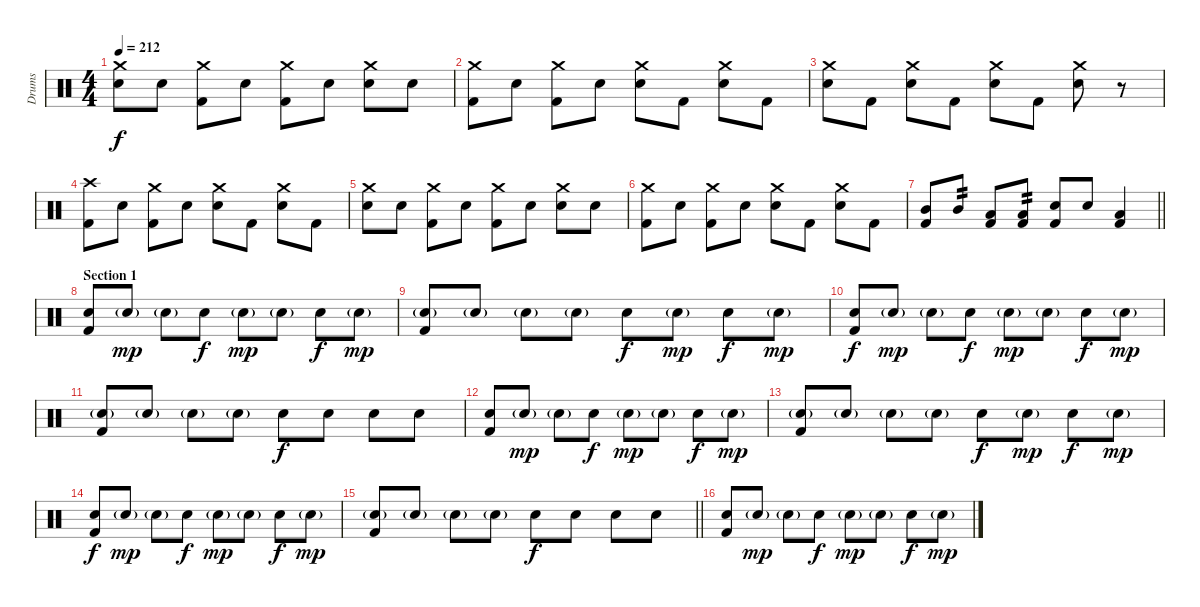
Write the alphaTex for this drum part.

\track ("Drums" "Drums") {instrument percussion}
\staff {score}
\articulation defaults
\ts (4 4)
\tempo 212
\clef neutral
\ks c
("Crash medium (hit)" "Snare (hit) 2").8{dy f} "Snare (hit) 2".8 ("Crash medium (hit)" "Kick (hit) 2").8 "Snare (hit) 2".8 ("Crash medium (hit)" "Kick (hit) 2").8 "Snare (hit) 2".8 ("Crash medium (hit)" "Snare (hit) 2").8 "Snare (hit) 2".8 |
("Crash medium (hit)" "Kick (hit) 2").8 "Snare (hit) 2".8 ("Crash medium (hit)" "Kick (hit) 2").8 "Snare (hit) 2".8 ("Crash medium (hit)" "Snare (hit) 2").8 "Kick (hit) 2".8 ("Crash medium (hit)" "Snare (hit) 2").8 "Kick (hit) 2".8 |
("Crash medium (hit)" "Snare (hit) 2").8 "Kick (hit) 2".8 ("Crash medium (hit)" "Snare (hit) 2").8 "Kick (hit) 2".8 ("Crash medium (hit)" "Snare (hit) 2").8 "Kick (hit) 2".8 ("Crash medium (hit)" "Snare (hit) 2").8 r.8 |
("Crash high (hit)" "Kick (hit) 2").8 "Snare (hit) 2".8 ("Crash medium (hit)" "Kick (hit) 2").8 "Snare (hit) 2".8 ("Crash medium (hit)" "Snare (hit) 2").8 "Kick (hit) 2".8 ("Crash medium (hit)" "Snare (hit) 2").8 "Kick (hit) 2".8 |
("Crash medium (hit)" "Snare (hit) 2").8 "Snare (hit) 2".8 ("Crash medium (hit)" "Kick (hit) 2").8 "Snare (hit) 2".8 ("Crash medium (hit)" "Kick (hit) 2").8 "Snare (hit) 2".8 ("Crash medium (hit)" "Snare (hit) 2").8 "Snare (hit) 2".8 |
("Crash medium (hit)" "Kick (hit) 2").8 "Snare (hit) 2".8 ("Crash medium (hit)" "Kick (hit) 2").8 "Snare (hit) 2".8 ("Crash medium (hit)" "Snare (hit) 2").8 "Kick (hit) 2".8 ("Crash medium (hit)" "Snare (hit) 2").8 "Kick (hit) 2".8 |
\barLineRight lightlight
("Mid Tom (hit)" "Kick (hit) 2").8 "Mid Tom (hit)".8{tp 2} ("Low Tom (hit)" "Kick (hit) 2").8 ("Low Tom (hit)" "Kick (hit) 2").8{tp 2} ("Snare (hit) 2" "Kick (hit) 2").8 "Snare (hit) 2".8 ("Low Tom (hit)" "Kick (hit) 2").4 |
\section ("" "Section 1")
("Snare (hit) 2" "Kick (hit) 2").8 "Snare (hit) 2"{g}.8{dy mp} "Snare (hit) 2"{g}.8 "Snare (hit) 2".8{dy f} "Snare (hit) 2"{g}.8{dy mp} "Snare (hit) 2"{g}.8 "Snare (hit) 2".8{dy f} "Snare (hit) 2"{g}.8{dy mp} |
("Snare (hit) 2"{g} "Kick (hit) 2").8 "Snare (hit) 2"{g}.8 "Snare (hit) 2"{g}.8 "Snare (hit) 2"{g}.8 "Snare (hit) 2".8{dy f} "Snare (hit) 2"{g}.8{dy mp} "Snare (hit) 2".8{dy f} "Snare (hit) 2"{g}.8{dy mp} |
("Snare (hit) 2" "Kick (hit) 2").8{dy f} "Snare (hit) 2"{g}.8{dy mp} "Snare (hit) 2"{g}.8 "Snare (hit) 2".8{dy f} "Snare (hit) 2"{g}.8{dy mp} "Snare (hit) 2"{g}.8 "Snare (hit) 2".8{dy f} "Snare (hit) 2"{g}.8{dy mp} |
("Snare (hit) 2"{g} "Kick (hit) 2").8 "Snare (hit) 2"{g}.8 "Snare (hit) 2"{g}.8 "Snare (hit) 2"{g}.8 "Snare (hit) 2".8{dy f} "Snare (hit) 2".8 "Snare (hit) 2".8 "Snare (hit) 2".8 |
("Snare (hit) 2" "Kick (hit) 2").8 "Snare (hit) 2"{g}.8{dy mp} "Snare (hit) 2"{g}.8 "Snare (hit) 2".8{dy f} "Snare (hit) 2"{g}.8{dy mp} "Snare (hit) 2"{g}.8 "Snare (hit) 2".8{dy f} "Snare (hit) 2"{g}.8{dy mp} |
("Snare (hit) 2"{g} "Kick (hit) 2").8 "Snare (hit) 2"{g}.8 "Snare (hit) 2"{g}.8 "Snare (hit) 2"{g}.8 "Snare (hit) 2".8{dy f} "Snare (hit) 2"{g}.8{dy mp} "Snare (hit) 2".8{dy f} "Snare (hit) 2"{g}.8{dy mp} |
("Snare (hit) 2" "Kick (hit) 2").8{dy f} "Snare (hit) 2"{g}.8{dy mp} "Snare (hit) 2"{g}.8 "Snare (hit) 2".8{dy f} "Snare (hit) 2"{g}.8{dy mp} "Snare (hit) 2"{g}.8 "Snare (hit) 2".8{dy f} "Snare (hit) 2"{g}.8{dy mp} |
\barLineRight lightlight
("Snare (hit) 2"{g} "Kick (hit) 2").8 "Snare (hit) 2"{g}.8 "Snare (hit) 2"{g}.8 "Snare (hit) 2"{g}.8 "Snare (hit) 2".8{dy f} "Snare (hit) 2".8 "Snare (hit) 2".8 "Snare (hit) 2".8 |
("Snare (hit) 2" "Kick (hit) 2").8 "Snare (hit) 2"{g}.8{dy mp} "Snare (hit) 2"{g}.8 "Snare (hit) 2".8{dy f} "Snare (hit) 2"{g}.8{dy mp} "Snare (hit) 2"{g}.8 "Snare (hit) 2".8{dy f} "Snare (hit) 2"{g}.8{dy mp}
